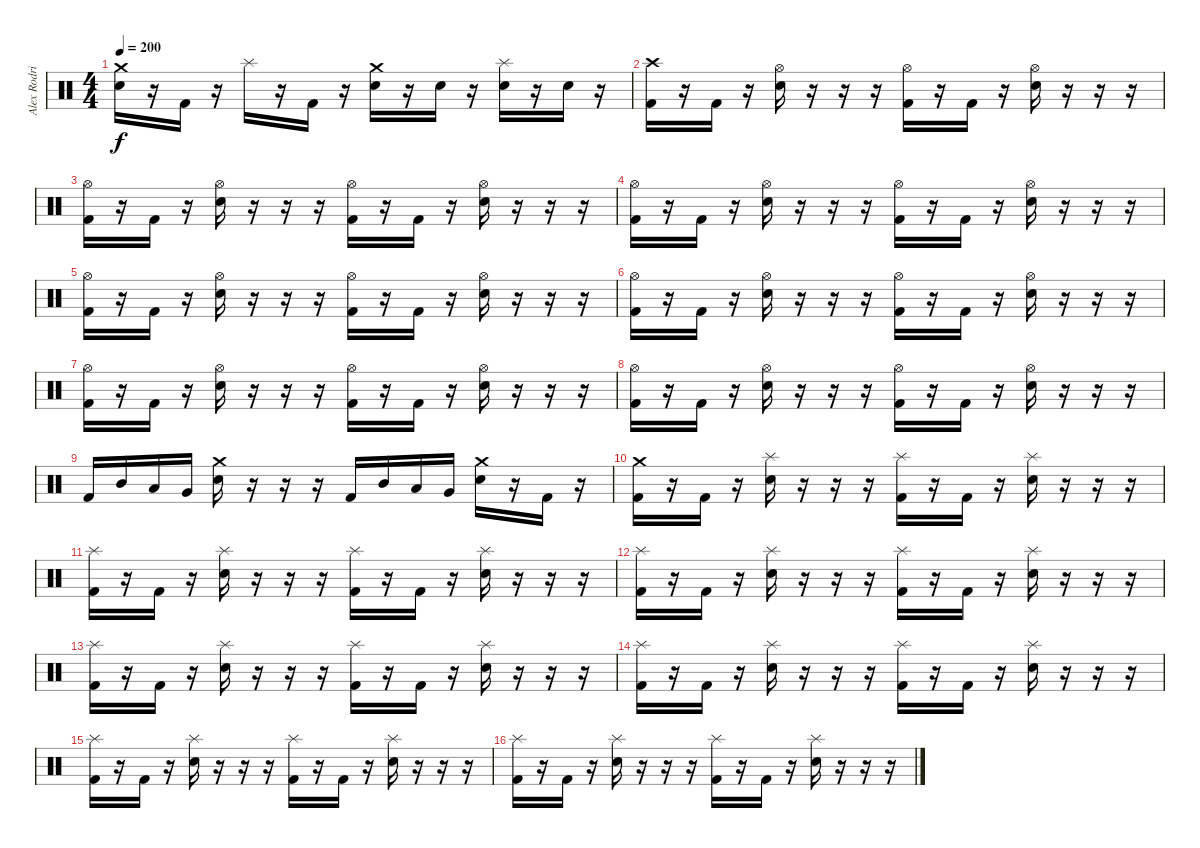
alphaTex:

\track ("Alex Rodriguez" "Alex Rodri") {instrument percussion}
\staff {score}
\articulation defaults
\ts (4 4)
\tempo 200
\clef neutral
\ks c
("Crash medium (hit)" "Electric Snare (hit)").16{dy f} r.16 "Kick (hit) 2".16 r.16 "Splash (hit)".16 r.16 "Kick (hit) 2".16 r.16 ("Crash medium (hit)" "Electric Snare (hit)").16 r.16 "Electric Snare (hit)".16 r.16 ("Splash (hit)" "Electric Snare (hit)").16 r.16 "Electric Snare (hit)".16 r.16 |
("Crash high (hit)" "Kick (hit) 2").16 r.16 "Kick (hit) 2".16 r.16 ("Hi-Hat (open)" "Electric Snare (hit)").16 r.16 r.16 r.16 ("Hi-Hat (open)" "Kick (hit) 2").16 r.16 "Kick (hit) 2".16 r.16 ("Hi-Hat (open)" "Electric Snare (hit)").16 r.16 r.16 r.16 |
("Hi-Hat (open)" "Kick (hit) 2").16 r.16 "Kick (hit) 2".16 r.16 ("Hi-Hat (open)" "Electric Snare (hit)").16 r.16 r.16 r.16 ("Hi-Hat (open)" "Kick (hit) 2").16 r.16 "Kick (hit) 2".16 r.16 ("Hi-Hat (open)" "Electric Snare (hit)").16 r.16 r.16 r.16 |
("Hi-Hat (open)" "Kick (hit) 2").16 r.16 "Kick (hit) 2".16 r.16 ("Hi-Hat (open)" "Electric Snare (hit)").16 r.16 r.16 r.16 ("Hi-Hat (open)" "Kick (hit) 2").16 r.16 "Kick (hit) 2".16 r.16 ("Hi-Hat (open)" "Electric Snare (hit)").16 r.16 r.16 r.16 |
("Hi-Hat (open)" "Kick (hit) 2").16 r.16 "Kick (hit) 2".16 r.16 ("Hi-Hat (open)" "Electric Snare (hit)").16 r.16 r.16 r.16 ("Hi-Hat (open)" "Kick (hit) 2").16 r.16 "Kick (hit) 2".16 r.16 ("Hi-Hat (open)" "Electric Snare (hit)").16 r.16 r.16 r.16 |
("Hi-Hat (open)" "Kick (hit) 2").16 r.16 "Kick (hit) 2".16 r.16 ("Hi-Hat (open)" "Electric Snare (hit)").16 r.16 r.16 r.16 ("Hi-Hat (open)" "Kick (hit) 2").16 r.16 "Kick (hit) 2".16 r.16 ("Hi-Hat (open)" "Electric Snare (hit)").16 r.16 r.16 r.16 |
("Hi-Hat (open)" "Kick (hit) 2").16 r.16 "Kick (hit) 2".16 r.16 ("Hi-Hat (open)" "Electric Snare (hit)").16 r.16 r.16 r.16 ("Hi-Hat (open)" "Kick (hit) 2").16 r.16 "Kick (hit) 2".16 r.16 ("Hi-Hat (open)" "Electric Snare (hit)").16 r.16 r.16 r.16 |
("Hi-Hat (open)" "Kick (hit) 2").16 r.16 "Kick (hit) 2".16 r.16 ("Hi-Hat (open)" "Electric Snare (hit)").16 r.16 r.16 r.16 ("Hi-Hat (open)" "Kick (hit) 2").16 r.16 "Kick (hit) 2".16 r.16 ("Hi-Hat (open)" "Electric Snare (hit)").16 r.16 r.16 r.16 |
"Kick (hit) 2".16 "Mid Tom (hit)".16 "Low Tom (hit)".16 "Very Low Tom (hit)".16 ("Crash medium (hit)" "Electric Snare (hit)").16 r.16 r.16 r.16 "Kick (hit) 2".16 "Mid Tom (hit)".16 "Low Tom (hit)".16 "Very Low Tom (hit)".16 ("Crash medium (hit)" "Electric Snare (hit)").16 r.16 "Kick (hit) 2".16 r.16 |
("Crash medium (hit)" "Kick (hit) 2").16 r.16 "Kick (hit) 2".16 r.16 ("Splash (hit)" "Electric Snare (hit)").16 r.16 r.16 r.16 ("Splash (hit)" "Kick (hit) 2").16 r.16 "Kick (hit) 2".16 r.16 ("Splash (hit)" "Electric Snare (hit)").16 r.16 r.16 r.16 |
("Splash (hit)" "Kick (hit) 2").16 r.16 "Kick (hit) 2".16 r.16 ("Splash (hit)" "Electric Snare (hit)").16 r.16 r.16 r.16 ("Splash (hit)" "Kick (hit) 2").16 r.16 "Kick (hit) 2".16 r.16 ("Splash (hit)" "Electric Snare (hit)").16 r.16 r.16 r.16 |
("Splash (hit)" "Kick (hit) 2").16 r.16 "Kick (hit) 2".16 r.16 ("Splash (hit)" "Electric Snare (hit)").16 r.16 r.16 r.16 ("Splash (hit)" "Kick (hit) 2").16 r.16 "Kick (hit) 2".16 r.16 ("Splash (hit)" "Electric Snare (hit)").16 r.16 r.16 r.16 |
("Splash (hit)" "Kick (hit) 2").16 r.16 "Kick (hit) 2".16 r.16 ("Splash (hit)" "Electric Snare (hit)").16 r.16 r.16 r.16 ("Splash (hit)" "Kick (hit) 2").16 r.16 "Kick (hit) 2".16 r.16 ("Splash (hit)" "Electric Snare (hit)").16 r.16 r.16 r.16 |
("Splash (hit)" "Kick (hit) 2").16 r.16 "Kick (hit) 2".16 r.16 ("Splash (hit)" "Electric Snare (hit)").16 r.16 r.16 r.16 ("Splash (hit)" "Kick (hit) 2").16 r.16 "Kick (hit) 2".16 r.16 ("Splash (hit)" "Electric Snare (hit)").16 r.16 r.16 r.16 |
("Splash (hit)" "Kick (hit) 2").16 r.16 "Kick (hit) 2".16 r.16 ("Splash (hit)" "Electric Snare (hit)").16 r.16 r.16 r.16 ("Splash (hit)" "Kick (hit) 2").16 r.16 "Kick (hit) 2".16 r.16 ("Splash (hit)" "Electric Snare (hit)").16 r.16 r.16 r.16 |
("Splash (hit)" "Kick (hit) 2").16 r.16 "Kick (hit) 2".16 r.16 ("Splash (hit)" "Electric Snare (hit)").16 r.16 r.16 r.16 ("Splash (hit)" "Kick (hit) 2").16 r.16 "Kick (hit) 2".16 r.16 ("Splash (hit)" "Electric Snare (hit)").16 r.16 r.16 r.16
